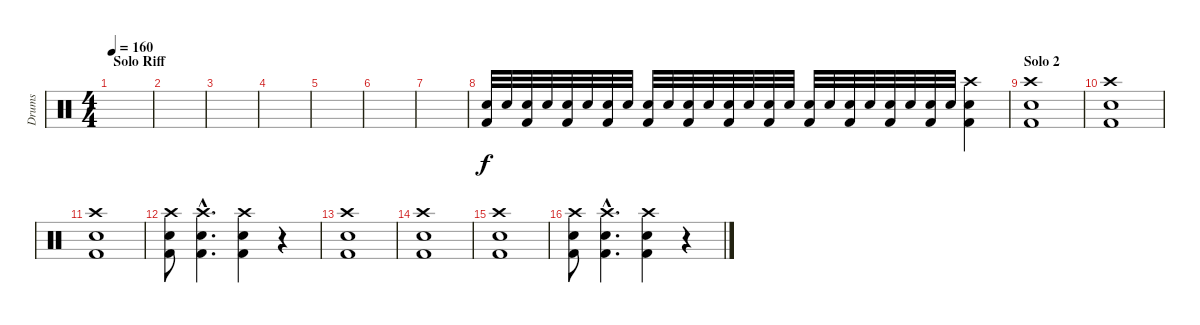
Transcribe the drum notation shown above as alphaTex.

\track ("Drums" "Drums") {instrument percussion}
\staff {score}
\articulation defaults
\ts (4 4)
\section ("" "Solo Riff")
\tempo 160
\clef neutral
\ks c
|
|
|
|
|
|
|
("Kick (hit) 2" "Snare (hit) 2").32 "Snare (hit) 2".32 ("Kick (hit) 2" "Snare (hit) 2").32 "Snare (hit) 2".32 ("Kick (hit) 2" "Snare (hit) 2").32 "Snare (hit) 2".32 ("Kick (hit) 2" "Snare (hit) 2").32 "Snare (hit) 2".32 ("Kick (hit) 2" "Snare (hit) 2").32 "Snare (hit) 2".32 ("Kick (hit) 2" "Snare (hit) 2").32 "Snare (hit) 2".32 ("Kick (hit) 2" "Snare (hit) 2").32 "Snare (hit) 2".32 ("Kick (hit) 2" "Snare (hit) 2").32 "Snare (hit) 2".32 ("Kick (hit) 2" "Snare (hit) 2").32 "Snare (hit) 2".32 ("Kick (hit) 2" "Snare (hit) 2").32 "Snare (hit) 2".32 ("Kick (hit) 2" "Snare (hit) 2").32 "Snare (hit) 2".32 ("Snare (hit) 2" "Kick (hit) 2").32 "Snare (hit) 2".32 ("Snare (hit) 2" "Crash high (hit)" "Kick (hit) 2").4 |
\section ("" "Solo 2")
("Crash high (hit)" "Kick (hit) 2" "Snare (hit) 2").1 |
("Kick (hit) 2" "Snare (hit) 2" "Crash high (hit)").1 |
("Crash high (hit)" "Snare (hit) 2" "Kick (hit) 2").1 |
("Crash high (hit)" "Snare (hit) 2" "Kick (hit) 2").8 ("Crash high (hit)"{hac} "Snare (hit) 2"{hac} "Kick (hit) 2"{hac}).4{d} ("Snare (hit) 2" "Crash high (hit)" "Kick (hit) 2").4 r.4 |
("Crash high (hit)" "Kick (hit) 2" "Snare (hit) 2").1 |
("Kick (hit) 2" "Snare (hit) 2" "Crash high (hit)").1 |
("Crash high (hit)" "Snare (hit) 2" "Kick (hit) 2").1 |
("Crash high (hit)" "Snare (hit) 2" "Kick (hit) 2").8 ("Crash high (hit)"{hac} "Snare (hit) 2"{hac} "Kick (hit) 2"{hac}).4{d} ("Snare (hit) 2" "Crash high (hit)" "Kick (hit) 2").4 r.4
